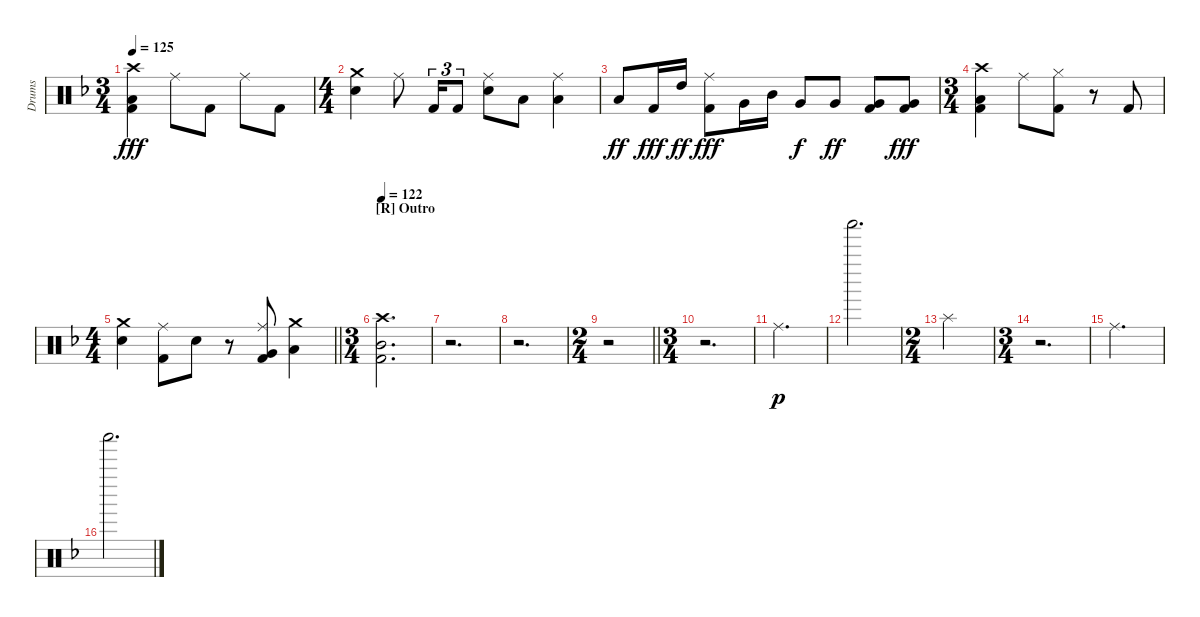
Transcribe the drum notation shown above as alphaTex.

\track ("Drums" "Drums") {instrument percussion}
\staff {score}
\articulation defaults
\ts (3 4)
\tempo 125
\clef neutral
\ks dminor
("Crash high (hit)" "Low Tom (hit)" "Kick (hit) 2").4{dy fff} "Ride (middle)".8 "Kick (hit) 2".8 "Ride (middle)".8 "Kick (hit) 2".8 |
\ts (4 4)
("Crash medium (hit)" "Snare (hit) 2").4 "Ride (middle)".8 "Kick (hit) 2".16{tu (3 2)} "Kick (hit) 2".8{tu (3 2)} ("Ride (middle)" "Snare (hit) 2").8 "Low Tom (hit)".8 ("Ride (middle)" "Low Tom (hit)").4 |
"Low Tom (hit)".8{dy ff} "Kick (hit) 2".16{dy fff} "High Tom (hit)".16{dy ff} ("Ride (middle)" "Kick (hit) 2").8{dy fff} "Very Low Tom (hit)".16 "Mid Tom (hit)".16 "Very Low Tom (hit)".8{dy f} "Very Low Tom (hit)".8{dy ff} ("Very Low Tom (hit)" "Kick (hit) 2").8 ("Very Low Tom (hit)" "Kick (hit) 2").8{dy fff} |
\ts (3 4)
("Crash high (hit)" "Low Tom (hit)" "Kick (hit) 2").4 "Ride (middle)".8 ("Hi-Hat (closed)" "Kick (hit) 2").8 r.8 "Kick (hit) 2".8 |
\ts (4 4)
\barLineRight lightlight
("Crash medium (hit)" "Snare (hit) 2").4 ("Ride (middle)" "Kick (hit) 2").8 "Snare (hit) 2".8 r.8 ("Ride (middle)" "Very Low Tom (hit)" "Kick (hit) 2").8 ("Crash medium (hit)" "Low Tom (hit)").4 |
\ts (3 4)
\section ("" "[R] Outro")
\tempo 120
\tempo 122
("Crash high (hit)" "Mid Tom (hit)" "Kick (hit) 2").2{d} |
r.2{d} |
r.2{d} |
\ts (2 4)
\barLineRight lightlight
r.2 |
\ts (3 4)
r.2{d} |
"Ride (middle)".2{d dy p} |
"Shaker (hit)".2{d} |
\ts (2 4)
"Splash (hit)".2 |
\ts (3 4)
r.2{d} |
"Ride (middle)".2{d} |
"Shaker (hit)".2{d}
